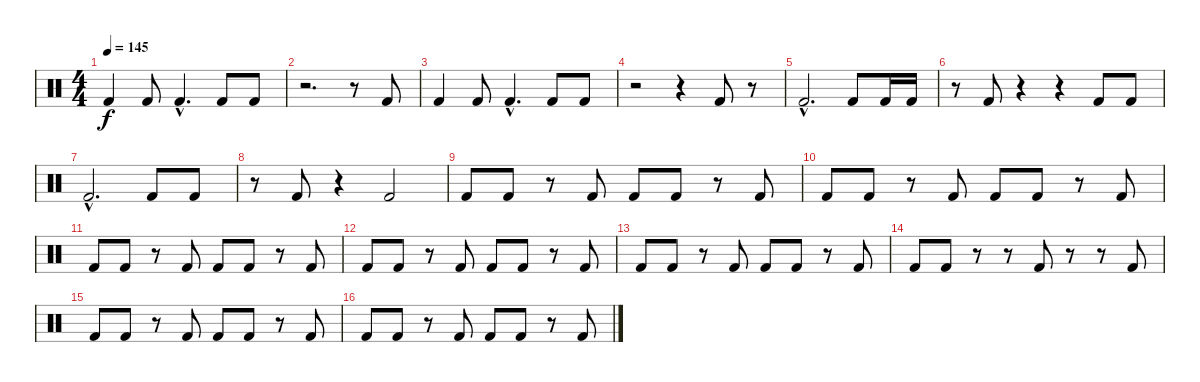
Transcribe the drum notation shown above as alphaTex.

\track "" {instrument percussion}
\staff {score}
\articulation defaults
\ts (4 4)
\tempo 145
\clef neutral
\ks c "Kick (hit) 2".4{dy f} "Kick (hit) 2".8 "Kick (hit) 2"{hac}.4{d} "Kick (hit) 2".8 "Kick (hit) 2".8
|
r.2{d} r.8 "Kick (hit) 2".8 |
"Kick (hit) 2".4 "Kick (hit) 2".8 "Kick (hit) 2"{hac}.4{d} "Kick (hit) 2".8 "Kick (hit) 2".8 |
r.2 r.4 "Kick (hit) 2".8 r.8 |
"Kick (hit) 2"{hac}.2{d} "Kick (hit) 2".8 "Kick (hit) 2".16 "Kick (hit) 2".16 |
r.8 "Kick (hit) 2".8 r.4 r.4 "Kick (hit) 2".8 "Kick (hit) 2".8 |
"Kick (hit) 2"{hac}.2{d} "Kick (hit) 2".8 "Kick (hit) 2".8 |
r.8 "Kick (hit) 2".8 r.4 "Kick (hit) 2".2 |
"Kick (hit) 2".8 "Kick (hit) 2".8 r.8 "Kick (hit) 2".8 "Kick (hit) 2".8 "Kick (hit) 2".8 r.8 "Kick (hit) 2".8 |
"Kick (hit) 2".8 "Kick (hit) 2".8 r.8 "Kick (hit) 2".8 "Kick (hit) 2".8 "Kick (hit) 2".8 r.8 "Kick (hit) 2".8 |
"Kick (hit) 2".8 "Kick (hit) 2".8 r.8 "Kick (hit) 2".8 "Kick (hit) 2".8 "Kick (hit) 2".8 r.8 "Kick (hit) 2".8 |
"Kick (hit) 2".8 "Kick (hit) 2".8 r.8 "Kick (hit) 2".8 "Kick (hit) 2".8 "Kick (hit) 2".8 r.8 "Kick (hit) 2".8 |
"Kick (hit) 2".8 "Kick (hit) 2".8 r.8 "Kick (hit) 2".8 "Kick (hit) 2".8 "Kick (hit) 2".8 r.8 "Kick (hit) 2".8 |
"Kick (hit) 2".8 "Kick (hit) 2".8 r.8 r.8 "Kick (hit) 2".8 r.8 r.8 "Kick (hit) 2".8 |
"Kick (hit) 2".8 "Kick (hit) 2".8 r.8 "Kick (hit) 2".8 "Kick (hit) 2".8 "Kick (hit) 2".8 r.8 "Kick (hit) 2".8 |
"Kick (hit) 2".8 "Kick (hit) 2".8 r.8 "Kick (hit) 2".8 "Kick (hit) 2".8 "Kick (hit) 2".8 r.8 "Kick (hit) 2".8
